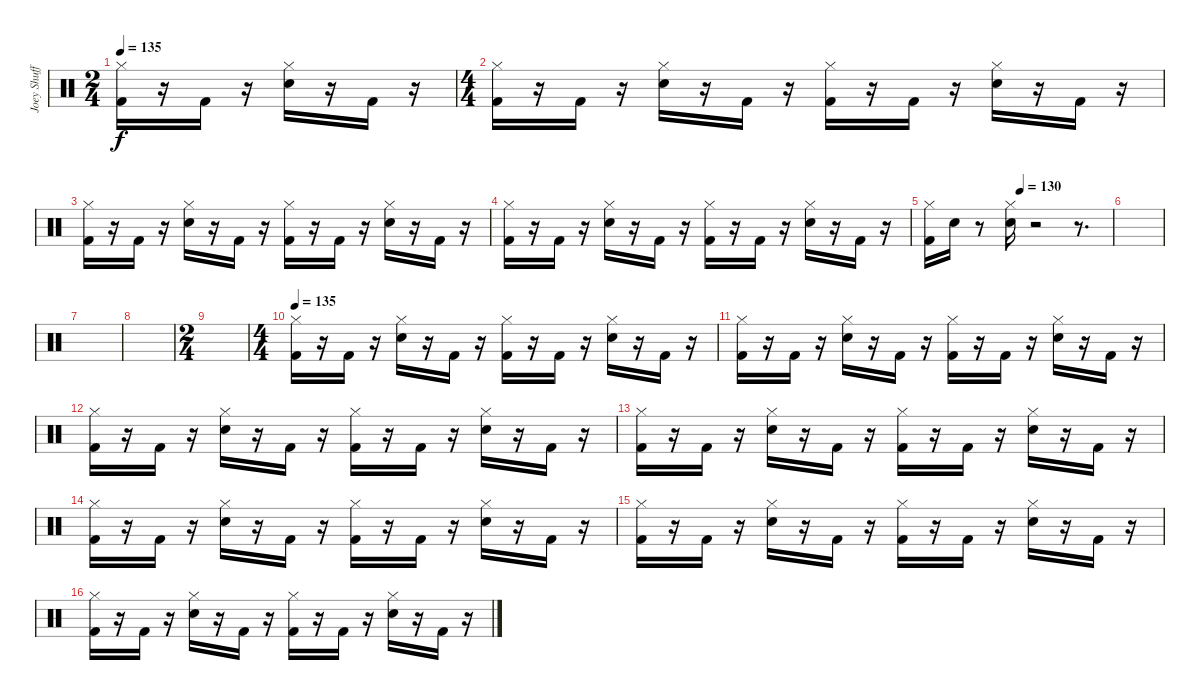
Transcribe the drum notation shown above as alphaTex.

\track ("Joey Shuffield" "Joey Shuff") {instrument percussion}
\staff {score}
\articulation defaults
\ts (2 4)
\tempo 135
\clef neutral
\ks c
("Kick (hit) 2" "Hi-Hat (closed)").16{dy f} r.16 "Kick (hit) 2".16 r.16 ("Snare (hit) 2" "Hi-Hat (closed)").16 r.16 "Kick (hit) 2".16 r.16 |
\ts (4 4)
("Kick (hit) 2" "Hi-Hat (closed)").16 r.16 "Kick (hit) 2".16 r.16 ("Snare (hit) 2" "Hi-Hat (closed)").16 r.16 "Kick (hit) 2".16 r.16 ("Kick (hit) 2" "Hi-Hat (closed)").16 r.16 "Kick (hit) 2".16 r.16 ("Snare (hit) 2" "Hi-Hat (closed)").16 r.16 "Kick (hit) 2".16 r.16 |
("Kick (hit) 2" "Hi-Hat (closed)").16 r.16 "Kick (hit) 2".16 r.16 ("Snare (hit) 2" "Hi-Hat (closed)").16 r.16 "Kick (hit) 2".16 r.16 ("Kick (hit) 2" "Hi-Hat (closed)").16 r.16 "Kick (hit) 2".16 r.16 ("Snare (hit) 2" "Hi-Hat (closed)").16 r.16 "Kick (hit) 2".16 r.16 |
("Kick (hit) 2" "Hi-Hat (closed)").16 r.16 "Kick (hit) 2".16 r.16 ("Snare (hit) 2" "Hi-Hat (closed)").16 r.16 "Kick (hit) 2".16 r.16 ("Kick (hit) 2" "Hi-Hat (closed)").16 r.16 "Kick (hit) 2".16 r.16 ("Snare (hit) 2" "Hi-Hat (closed)").16 r.16 "Kick (hit) 2".16 r.16 |
\tempo (130 0.5)
("Kick (hit) 2" "Hi-Hat (closed)").16 "Snare (hit) 2".16 r.8 ("Snare (hit) 2" "Hi-Hat (closed)").16 r.2 r.8{d} |
|
|
|
\ts (2 4)
|
\ts (4 4)
\tempo 135
("Kick (hit) 2" "Hi-Hat (closed)").16 r.16 "Kick (hit) 2".16 r.16 ("Snare (hit) 2" "Hi-Hat (closed)").16 r.16 "Kick (hit) 2".16 r.16 ("Kick (hit) 2" "Hi-Hat (closed)").16 r.16 "Kick (hit) 2".16 r.16 ("Snare (hit) 2" "Hi-Hat (closed)").16 r.16 "Kick (hit) 2".16 r.16 |
("Kick (hit) 2" "Hi-Hat (closed)").16 r.16 "Kick (hit) 2".16 r.16 ("Snare (hit) 2" "Hi-Hat (closed)").16 r.16 "Kick (hit) 2".16 r.16 ("Kick (hit) 2" "Hi-Hat (closed)").16 r.16 "Kick (hit) 2".16 r.16 ("Snare (hit) 2" "Hi-Hat (closed)").16 r.16 "Kick (hit) 2".16 r.16 |
("Kick (hit) 2" "Hi-Hat (closed)").16 r.16 "Kick (hit) 2".16 r.16 ("Snare (hit) 2" "Hi-Hat (closed)").16 r.16 "Kick (hit) 2".16 r.16 ("Kick (hit) 2" "Hi-Hat (closed)").16 r.16 "Kick (hit) 2".16 r.16 ("Snare (hit) 2" "Hi-Hat (closed)").16 r.16 "Kick (hit) 2".16 r.16 |
("Kick (hit) 2" "Hi-Hat (closed)").16 r.16 "Kick (hit) 2".16 r.16 ("Snare (hit) 2" "Hi-Hat (closed)").16 r.16 "Kick (hit) 2".16 r.16 ("Kick (hit) 2" "Hi-Hat (closed)").16 r.16 "Kick (hit) 2".16 r.16 ("Snare (hit) 2" "Hi-Hat (closed)").16 r.16 "Kick (hit) 2".16 r.16 |
("Kick (hit) 2" "Hi-Hat (closed)").16 r.16 "Kick (hit) 2".16 r.16 ("Snare (hit) 2" "Hi-Hat (closed)").16 r.16 "Kick (hit) 2".16 r.16 ("Kick (hit) 2" "Hi-Hat (closed)").16 r.16 "Kick (hit) 2".16 r.16 ("Snare (hit) 2" "Hi-Hat (closed)").16 r.16 "Kick (hit) 2".16 r.16 |
("Kick (hit) 2" "Hi-Hat (closed)").16 r.16 "Kick (hit) 2".16 r.16 ("Snare (hit) 2" "Hi-Hat (closed)").16 r.16 "Kick (hit) 2".16 r.16 ("Kick (hit) 2" "Hi-Hat (closed)").16 r.16 "Kick (hit) 2".16 r.16 ("Snare (hit) 2" "Hi-Hat (closed)").16 r.16 "Kick (hit) 2".16 r.16 |
("Kick (hit) 2" "Hi-Hat (closed)").16 r.16 "Kick (hit) 2".16 r.16 ("Snare (hit) 2" "Hi-Hat (closed)").16 r.16 "Kick (hit) 2".16 r.16 ("Kick (hit) 2" "Hi-Hat (closed)").16 r.16 "Kick (hit) 2".16 r.16 ("Snare (hit) 2" "Hi-Hat (closed)").16 r.16 "Kick (hit) 2".16 r.16
